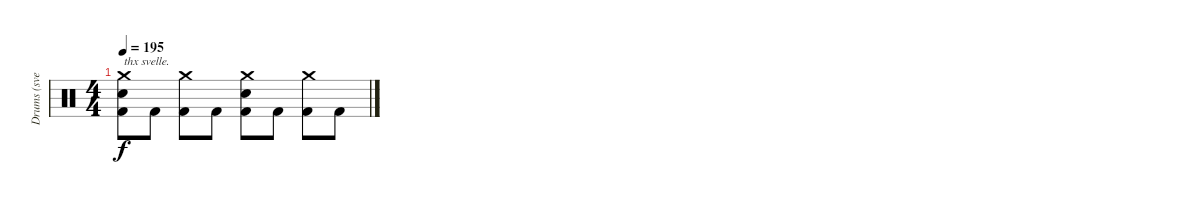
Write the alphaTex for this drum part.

\track ("Drums (svelle)" "Drums (sve") {instrument percussion}
\staff {score}
\articulation defaults
\ts (4 4)
\tempo 195
\clef neutral
\ks c
("Crash medium (hit)" "Electric Snare (hit)" "Kick (hit) 2").8{txt "thx svelle." dy f} "Kick (hit) 2".8 ("Crash medium (hit)" "Kick (hit) 2").8 "Kick (hit) 2".8 ("Crash medium (hit)" "Electric Snare (hit)" "Kick (hit) 2").8 "Kick (hit) 2".8 ("Crash medium (hit)" "Kick (hit) 2").8 "Kick (hit) 2".8
